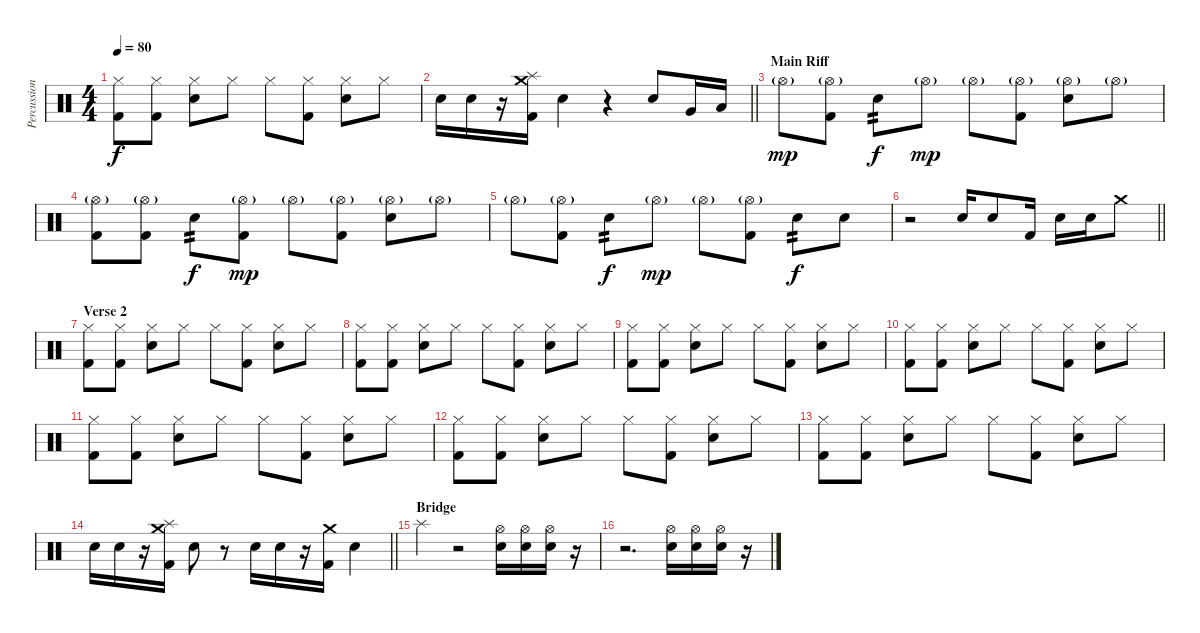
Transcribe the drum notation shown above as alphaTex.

\track ("Percussion" "Percussion") {instrument percussion}
\staff {score}
\articulation defaults
\ts (4 4)
\tempo 80
\clef neutral
\ks c
("Hi-Hat (closed)" "Kick (hit) 2").8{dy f} ("Hi-Hat (closed)" "Kick (hit) 2").8 ("Hi-Hat (closed)" "Snare (hit) 2").8 "Hi-Hat (closed)".8 "Hi-Hat (closed)".8 ("Hi-Hat (closed)" "Kick (hit) 2").8 ("Hi-Hat (closed)" "Snare (hit) 2").8 "Hi-Hat (closed)".8 |
\barLineRight lightlight "Snare (hit) 2".16 "Snare (hit) 2".16
r.16 ("Crash medium (hit)" "Splash (hit)" "Kick (hit) 2").16 "Snare (hit) 2".4 r.4 "Snare (hit) 2".8 "Very Low Tom (hit)".16 "Low Floor Tom (hit)".16 |
\section ("" "Main Riff")
"Hi-Hat (open)"{g}.8{dy mp volume 10} ("Hi-Hat (open)"{g} "Kick (hit) 2").8 "Snare (hit) 2".8{tp 2 dy f} "Hi-Hat (open)"{g}.8{dy mp} "Hi-Hat (open)"{g}.8 ("Hi-Hat (open)"{g} "Kick (hit) 2").8 ("Hi-Hat (open)"{g} "Snare (hit) 2").8 "Hi-Hat (open)"{g}.8 |
("Hi-Hat (open)"{g} "Kick (hit) 2").8 ("Hi-Hat (open)"{g} "Kick (hit) 2").8 "Snare (hit) 2".8{tp 2 dy f} ("Hi-Hat (open)"{g} "Kick (hit) 2").8{dy mp} "Hi-Hat (open)"{g}.8 ("Hi-Hat (open)"{g} "Kick (hit) 2").8 ("Hi-Hat (open)"{g} "Snare (hit) 2").8 "Hi-Hat (open)"{g}.8 |
"Hi-Hat (open)"{g}.8 ("Hi-Hat (open)"{g} "Kick (hit) 2").8 "Snare (hit) 2".8{tp 2 dy f} "Hi-Hat (open)"{g}.8{dy mp} "Hi-Hat (open)"{g}.8 ("Hi-Hat (open)"{g} "Kick (hit) 2").8 "Snare (hit) 2".8{tp 2 dy f} "Snare (hit) 2".8 |
\barLineRight lightlight
r.2 "Snare (hit) 2".16 "Snare (hit) 2".8 "Kick (hit) 2".16 "Snare (hit) 2".16 "Snare (hit) 2".16 "Crash medium (hit)".8 |
\section ("" "Verse 2")
("Hi-Hat (closed)" "Kick (hit) 2").8 ("Hi-Hat (closed)" "Kick (hit) 2").8 ("Hi-Hat (closed)" "Snare (hit) 2").8 "Hi-Hat (closed)".8 "Hi-Hat (closed)".8 ("Hi-Hat (closed)" "Kick (hit) 2").8 ("Hi-Hat (closed)" "Snare (hit) 2").8 "Hi-Hat (closed)".8 |
("Hi-Hat (closed)" "Kick (hit) 2").8 ("Hi-Hat (closed)" "Kick (hit) 2").8 ("Hi-Hat (closed)" "Snare (hit) 2").8 "Hi-Hat (closed)".8 "Hi-Hat (closed)".8 ("Hi-Hat (closed)" "Kick (hit) 2").8 ("Hi-Hat (closed)" "Snare (hit) 2").8 "Hi-Hat (closed)".8 |
("Hi-Hat (closed)" "Kick (hit) 2").8 ("Hi-Hat (closed)" "Kick (hit) 2").8 ("Hi-Hat (closed)" "Snare (hit) 2").8 "Hi-Hat (closed)".8 "Hi-Hat (closed)".8 ("Hi-Hat (closed)" "Kick (hit) 2").8 ("Hi-Hat (closed)" "Snare (hit) 2").8 "Hi-Hat (closed)".8 |
("Hi-Hat (closed)" "Kick (hit) 2").8 ("Hi-Hat (closed)" "Kick (hit) 2").8 ("Hi-Hat (closed)" "Snare (hit) 2").8 "Hi-Hat (closed)".8 "Hi-Hat (closed)".8 ("Hi-Hat (closed)" "Kick (hit) 2").8 ("Hi-Hat (closed)" "Snare (hit) 2").8 "Hi-Hat (closed)".8 |
("Hi-Hat (closed)" "Kick (hit) 2").8 ("Hi-Hat (closed)" "Kick (hit) 2").8 ("Hi-Hat (closed)" "Snare (hit) 2").8 "Hi-Hat (closed)".8 "Hi-Hat (closed)".8 ("Hi-Hat (closed)" "Kick (hit) 2").8 ("Hi-Hat (closed)" "Snare (hit) 2").8 "Hi-Hat (closed)".8 |
("Hi-Hat (closed)" "Kick (hit) 2").8 ("Hi-Hat (closed)" "Kick (hit) 2").8 ("Hi-Hat (closed)" "Snare (hit) 2").8 "Hi-Hat (closed)".8 "Hi-Hat (closed)".8 ("Hi-Hat (closed)" "Kick (hit) 2").8 ("Hi-Hat (closed)" "Snare (hit) 2").8 "Hi-Hat (closed)".8 |
("Hi-Hat (closed)" "Kick (hit) 2").8 ("Hi-Hat (closed)" "Kick (hit) 2").8 ("Hi-Hat (closed)" "Snare (hit) 2").8 "Hi-Hat (closed)".8 "Hi-Hat (closed)".8 ("Hi-Hat (closed)" "Kick (hit) 2").8 ("Hi-Hat (closed)" "Snare (hit) 2").8 "Hi-Hat (closed)".8 |
\barLineRight lightlight "Snare (hit) 2".16 "Snare (hit) 2".16
r.16 ("Crash medium (hit)" "Splash (hit)" "Kick (hit) 2").16 "Snare (hit) 2".8 r.8 "Snare (hit) 2".16 "Snare (hit) 2".16 r.16 ("Crash medium (hit)" "Kick (hit) 2").16 "Snare (hit) 2".4 |
\section ("" "Bridge")
"Splash (hit)".4 r.2 ("Hi-Hat (open)" "Snare (hit) 2").16 ("Hi-Hat (open)" "Snare (hit) 2").16 ("Hi-Hat (open)" "Snare (hit) 2").16 r.16 |
r.2{d} ("Hi-Hat (open)" "Snare (hit) 2").16 ("Hi-Hat (open)" "Snare (hit) 2").16 ("Hi-Hat (open)" "Snare (hit) 2").16 r.16
